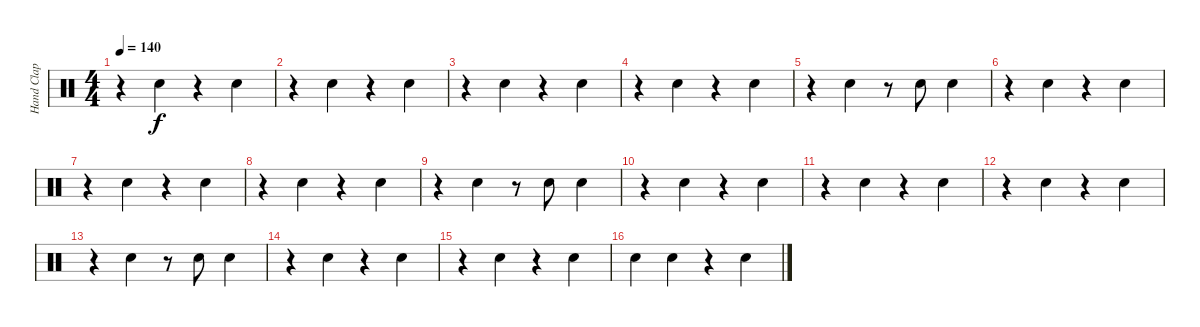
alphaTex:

\track ("Hand Clap" "Hand Clap") {instrument percussion}
\staff {score}
\articulation defaults
\ts (4 4)
\tempo 140
\clef neutral
\ks c
r.4{dy f} "Hand Clap (hit)".4 r.4 "Hand Clap (hit)".4 |
r.4 "Hand Clap (hit)".4 r.4 "Hand Clap (hit)".4 |
r.4 "Hand Clap (hit)".4 r.4 "Hand Clap (hit)".4 |
r.4 "Hand Clap (hit)".4 r.4 "Hand Clap (hit)".4 |
r.4 "Hand Clap (hit)".4 r.8 "Hand Clap (hit)".8 "Hand Clap (hit)".4 |
r.4 "Hand Clap (hit)".4 r.4 "Hand Clap (hit)".4 |
r.4 "Hand Clap (hit)".4 r.4 "Hand Clap (hit)".4 |
r.4 "Hand Clap (hit)".4 r.4 "Hand Clap (hit)".4 |
r.4 "Hand Clap (hit)".4 r.8 "Hand Clap (hit)".8 "Hand Clap (hit)".4 |
r.4 "Hand Clap (hit)".4 r.4 "Hand Clap (hit)".4 |
r.4 "Hand Clap (hit)".4 r.4 "Hand Clap (hit)".4 |
r.4 "Hand Clap (hit)".4 r.4 "Hand Clap (hit)".4 |
r.4 "Hand Clap (hit)".4 r.8 "Hand Clap (hit)".8 "Hand Clap (hit)".4 |
r.4 "Hand Clap (hit)".4 r.4 "Hand Clap (hit)".4 |
r.4 "Hand Clap (hit)".4 r.4 "Hand Clap (hit)".4 |
"Hand Clap (hit)".4 "Hand Clap (hit)".4 r.4 "Hand Clap (hit)".4
